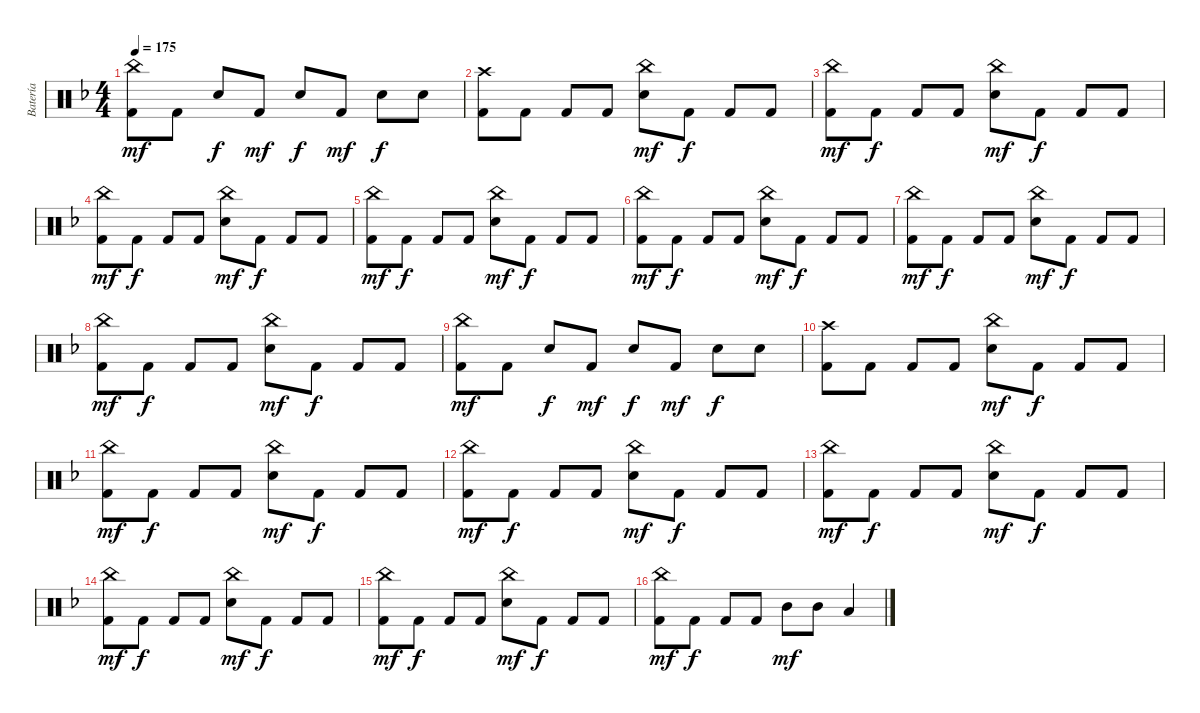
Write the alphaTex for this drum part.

\track ("Batería" "Batería") {instrument percussion}
\staff {score}
\articulation defaults
\ts (4 4)
\tempo 175
\clef neutral
\ks dminor
("China (hit)" "Kick (hit) 2").8{dy mf} "Kick (hit) 2".8 "Snare (hit) 2".8{dy f} "Kick (hit) 2".8{dy mf} "Snare (hit) 2".8{dy f} "Kick (hit) 2".8{dy mf} "Snare (hit) 2".8{dy f} "Snare (hit) 2".8 |
("Crash high (hit)" "Kick (hit) 2").8 "Kick (hit) 2".8 "Kick (hit) 2".8 "Kick (hit) 2".8 ("China (hit)" "Snare (hit) 2").8{dy mf} "Kick (hit) 2".8{dy f} "Kick (hit) 2".8 "Kick (hit) 2".8 |
("China (hit)" "Kick (hit) 2").8{dy mf} "Kick (hit) 2".8{dy f} "Kick (hit) 2".8 "Kick (hit) 2".8 ("China (hit)" "Snare (hit) 2").8{dy mf} "Kick (hit) 2".8{dy f} "Kick (hit) 2".8 "Kick (hit) 2".8 |
("China (hit)" "Kick (hit) 2").8{dy mf} "Kick (hit) 2".8{dy f} "Kick (hit) 2".8 "Kick (hit) 2".8 ("China (hit)" "Snare (hit) 2").8{dy mf} "Kick (hit) 2".8{dy f} "Kick (hit) 2".8 "Kick (hit) 2".8 |
("China (hit)" "Kick (hit) 2").8{dy mf} "Kick (hit) 2".8{dy f} "Kick (hit) 2".8 "Kick (hit) 2".8 ("China (hit)" "Snare (hit) 2").8{dy mf} "Kick (hit) 2".8{dy f} "Kick (hit) 2".8 "Kick (hit) 2".8 |
("China (hit)" "Kick (hit) 2").8{dy mf} "Kick (hit) 2".8{dy f} "Kick (hit) 2".8 "Kick (hit) 2".8 ("China (hit)" "Snare (hit) 2").8{dy mf} "Kick (hit) 2".8{dy f} "Kick (hit) 2".8 "Kick (hit) 2".8 |
("China (hit)" "Kick (hit) 2").8{dy mf} "Kick (hit) 2".8{dy f} "Kick (hit) 2".8 "Kick (hit) 2".8 ("China (hit)" "Snare (hit) 2").8{dy mf} "Kick (hit) 2".8{dy f} "Kick (hit) 2".8 "Kick (hit) 2".8 |
("China (hit)" "Kick (hit) 2").8{dy mf} "Kick (hit) 2".8{dy f} "Kick (hit) 2".8 "Kick (hit) 2".8 ("China (hit)" "Snare (hit) 2").8{dy mf} "Kick (hit) 2".8{dy f} "Kick (hit) 2".8 "Kick (hit) 2".8 |
("China (hit)" "Kick (hit) 2").8{dy mf} "Kick (hit) 2".8 "Snare (hit) 2".8{dy f} "Kick (hit) 2".8{dy mf} "Snare (hit) 2".8{dy f} "Kick (hit) 2".8{dy mf} "Snare (hit) 2".8{dy f} "Snare (hit) 2".8 |
("Crash high (hit)" "Kick (hit) 2").8 "Kick (hit) 2".8 "Kick (hit) 2".8 "Kick (hit) 2".8 ("China (hit)" "Snare (hit) 2").8{dy mf} "Kick (hit) 2".8{dy f} "Kick (hit) 2".8 "Kick (hit) 2".8 |
("China (hit)" "Kick (hit) 2").8{dy mf} "Kick (hit) 2".8{dy f} "Kick (hit) 2".8 "Kick (hit) 2".8 ("China (hit)" "Snare (hit) 2").8{dy mf} "Kick (hit) 2".8{dy f} "Kick (hit) 2".8 "Kick (hit) 2".8 |
("China (hit)" "Kick (hit) 2").8{dy mf} "Kick (hit) 2".8{dy f} "Kick (hit) 2".8 "Kick (hit) 2".8 ("China (hit)" "Snare (hit) 2").8{dy mf} "Kick (hit) 2".8{dy f} "Kick (hit) 2".8 "Kick (hit) 2".8 |
("China (hit)" "Kick (hit) 2").8{dy mf} "Kick (hit) 2".8{dy f} "Kick (hit) 2".8 "Kick (hit) 2".8 ("China (hit)" "Snare (hit) 2").8{dy mf} "Kick (hit) 2".8{dy f} "Kick (hit) 2".8 "Kick (hit) 2".8 |
("China (hit)" "Kick (hit) 2").8{dy mf} "Kick (hit) 2".8{dy f} "Kick (hit) 2".8 "Kick (hit) 2".8 ("China (hit)" "Snare (hit) 2").8{dy mf} "Kick (hit) 2".8{dy f} "Kick (hit) 2".8 "Kick (hit) 2".8 |
("China (hit)" "Kick (hit) 2").8{dy mf} "Kick (hit) 2".8{dy f} "Kick (hit) 2".8 "Kick (hit) 2".8 ("China (hit)" "Snare (hit) 2").8{dy mf} "Kick (hit) 2".8{dy f} "Kick (hit) 2".8 "Kick (hit) 2".8 |
("China (hit)" "Kick (hit) 2").8{dy mf} "Kick (hit) 2".8{dy f} "Kick (hit) 2".8 "Kick (hit) 2".8 "Mid Tom (hit)".8{dy mf} "Mid Tom (hit)".8 "Low Tom (hit)".4
